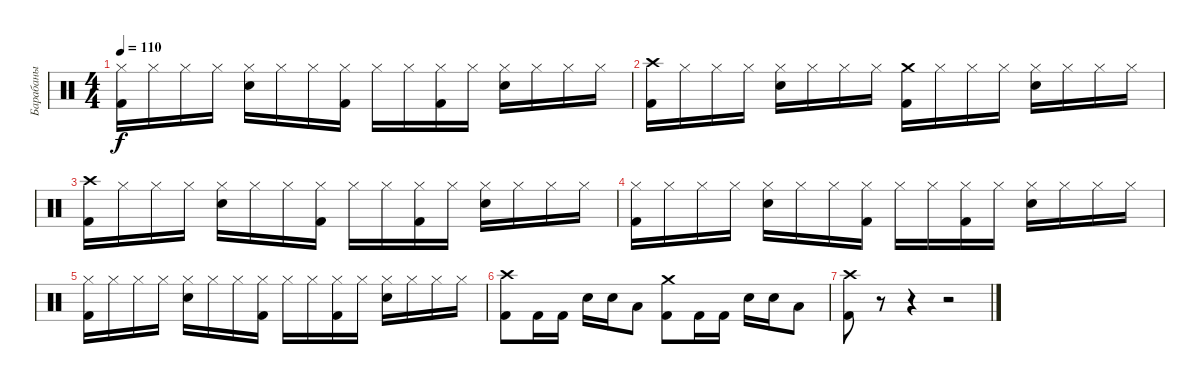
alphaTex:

\track ("Барабаны" "Барабаны") {instrument percussion}
\staff {score}
\articulation defaults
\ts (4 4)
\tempo 110
\clef neutral
\ks c
("Hi-Hat (closed)" "Kick (hit) 2").16{dy f} "Hi-Hat (closed)".16 "Hi-Hat (closed)".16 "Hi-Hat (closed)".16 ("Hi-Hat (closed)" "Snare (hit) 2").16 "Hi-Hat (closed)".16 "Hi-Hat (closed)".16 ("Hi-Hat (closed)" "Kick (hit) 2").16 "Hi-Hat (closed)".16 "Hi-Hat (closed)".16 ("Hi-Hat (closed)" "Kick (hit) 2").16 "Hi-Hat (closed)".16 ("Hi-Hat (closed)" "Snare (hit) 2").16 "Hi-Hat (closed)".16 "Hi-Hat (closed)".16 "Hi-Hat (closed)".16 |
("Crash high (hit)" "Kick (hit) 2").16 "Hi-Hat (closed)".16 "Hi-Hat (closed)".16 "Hi-Hat (closed)".16 ("Hi-Hat (closed)" "Snare (hit) 2").16 "Hi-Hat (closed)".16 "Hi-Hat (closed)".16 "Hi-Hat (closed)".16 ("Crash medium (hit)" "Kick (hit) 2").16 "Hi-Hat (closed)".16 "Hi-Hat (closed)".16 "Hi-Hat (closed)".16 ("Hi-Hat (closed)" "Snare (hit) 2").16 "Hi-Hat (closed)".16 "Hi-Hat (closed)".16 "Hi-Hat (closed)".16 |
("Crash high (hit)" "Kick (hit) 2").16 "Hi-Hat (closed)".16 "Hi-Hat (closed)".16 "Hi-Hat (closed)".16 ("Hi-Hat (closed)" "Snare (hit) 2").16 "Hi-Hat (closed)".16 "Hi-Hat (closed)".16 ("Hi-Hat (closed)" "Kick (hit) 2").16 "Hi-Hat (closed)".16 "Hi-Hat (closed)".16 ("Hi-Hat (closed)" "Kick (hit) 2").16 "Hi-Hat (closed)".16 ("Hi-Hat (closed)" "Snare (hit) 2").16 "Hi-Hat (closed)".16 "Hi-Hat (closed)".16 "Hi-Hat (closed)".16 |
("Hi-Hat (closed)" "Kick (hit) 2").16 "Hi-Hat (closed)".16 "Hi-Hat (closed)".16 "Hi-Hat (closed)".16 ("Hi-Hat (closed)" "Snare (hit) 2").16 "Hi-Hat (closed)".16 "Hi-Hat (closed)".16 ("Hi-Hat (closed)" "Kick (hit) 2").16 "Hi-Hat (closed)".16 "Hi-Hat (closed)".16 ("Hi-Hat (closed)" "Kick (hit) 2").16 "Hi-Hat (closed)".16 ("Hi-Hat (closed)" "Snare (hit) 2").16 "Hi-Hat (closed)".16 "Hi-Hat (closed)".16 "Hi-Hat (closed)".16 |
("Hi-Hat (closed)" "Kick (hit) 2").16 "Hi-Hat (closed)".16 "Hi-Hat (closed)".16 "Hi-Hat (closed)".16 ("Hi-Hat (closed)" "Snare (hit) 2").16 "Hi-Hat (closed)".16 "Hi-Hat (closed)".16 ("Hi-Hat (closed)" "Kick (hit) 2").16 "Hi-Hat (closed)".16 "Hi-Hat (closed)".16 ("Hi-Hat (closed)" "Kick (hit) 2").16 "Hi-Hat (closed)".16 ("Hi-Hat (closed)" "Snare (hit) 2").16 "Hi-Hat (closed)".16 "Hi-Hat (closed)".16 "Hi-Hat (closed)".16 |
("Crash high (hit)" "Kick (hit) 2").8 "Kick (hit) 2".16 "Kick (hit) 2".16 "Snare (hit) 2".16 "Snare (hit) 2".16 "Low Tom (hit)".8 ("Crash medium (hit)" "Kick (hit) 2").8 "Kick (hit) 2".16 "Kick (hit) 2".16 "Snare (hit) 2".16 "Snare (hit) 2".16 "Low Floor Tom (hit)".8 |
("Crash high (hit)" "Kick (hit) 2").8 r.8 r.4 r.2
